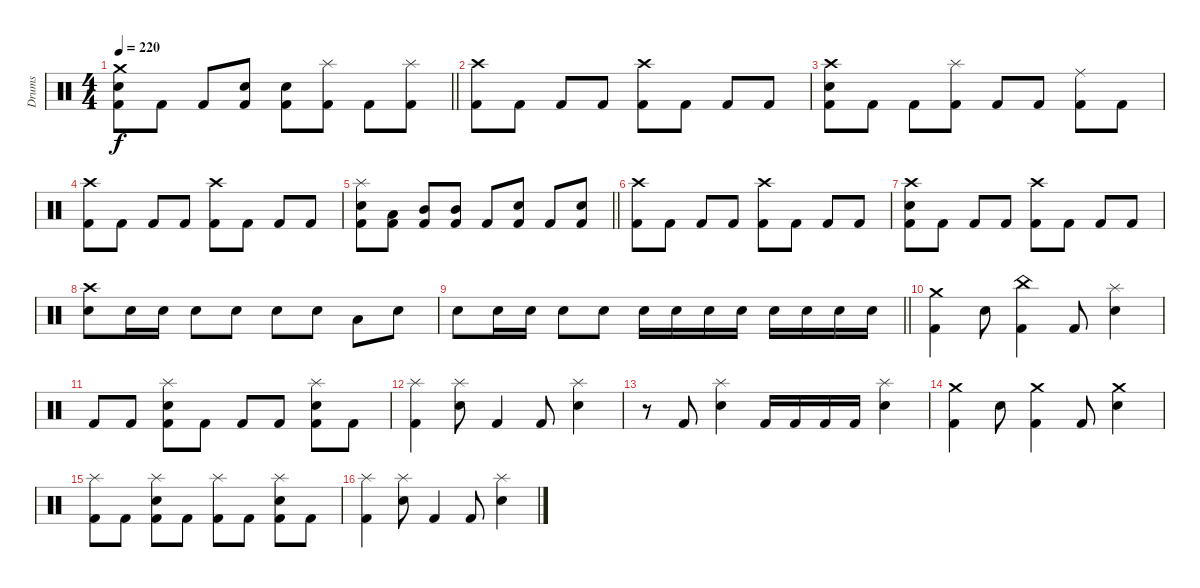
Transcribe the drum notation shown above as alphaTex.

\track ("Drums" "Drums") {instrument percussion}
\staff {score}
\articulation defaults
\ts (4 4)
\tempo 220
\clef neutral
\barLineRight lightlight
\ks c
("Crash medium (hit)" "Electric Snare (hit)" "Kick (hit) 2").8{dy f} "Kick (hit) 2".8 "Kick (hit) 2".8 ("Electric Snare (hit)" "Kick (hit) 2").8 ("Electric Snare (hit)" "Kick (hit) 2").8 ("Splash (hit)" "Kick (hit) 2").8 "Kick (hit) 2".8 ("Splash (hit)" "Kick (hit) 2").8 |
("Crash high (hit)" "Kick (hit) 2").8 "Kick (hit) 2".8 "Kick (hit) 2".8 "Kick (hit) 2".8 ("Crash high (hit)" "Kick (hit) 2").8 "Kick (hit) 2".8 "Kick (hit) 2".8 "Kick (hit) 2".8 |
("Crash high (hit)" "Electric Snare (hit)" "Kick (hit) 2").8 "Kick (hit) 2".8 "Kick (hit) 2".8 ("Splash (hit)" "Kick (hit) 2").8 "Kick (hit) 2".8 "Kick (hit) 2".8 ("Ride (middle)" "Kick (hit) 2").8 "Kick (hit) 2".8 |
("Crash high (hit)" "Kick (hit) 2").8 "Kick (hit) 2".8 "Kick (hit) 2".8 "Kick (hit) 2".8 ("Crash high (hit)" "Kick (hit) 2").8 "Kick (hit) 2".8 "Kick (hit) 2".8 "Kick (hit) 2".8 |
\barLineRight lightlight
("Splash (hit)" "Electric Snare (hit)" "Kick (hit) 2").8 ("Low Tom (hit)" "Kick (hit) 2").8 ("Mid Tom (hit)" "Kick (hit) 2").8 ("Mid Tom (hit)" "Kick (hit) 2").8 "Kick (hit) 2".8 ("Electric Snare (hit)" "Kick (hit) 2").8 "Kick (hit) 2".8 ("Electric Snare (hit)" "Kick (hit) 2").8 |
("Crash high (hit)" "Kick (hit) 2").8 "Kick (hit) 2".8 "Kick (hit) 2".8 "Kick (hit) 2".8 ("Crash high (hit)" "Kick (hit) 2").8 "Kick (hit) 2".8 "Kick (hit) 2".8 "Kick (hit) 2".8 |
("Crash high (hit)" "Electric Snare (hit)" "Kick (hit) 2").8 "Kick (hit) 2".8 "Kick (hit) 2".8 "Kick (hit) 2".8 ("Crash high (hit)" "Kick (hit) 2").8 "Kick (hit) 2".8 "Kick (hit) 2".8 "Kick (hit) 2".8 |
("Crash high (hit)" "Electric Snare (hit)").8 "Electric Snare (hit)".16 "Electric Snare (hit)".16 "Electric Snare (hit)".8 "Electric Snare (hit)".8 "Electric Snare (hit)".8 "Electric Snare (hit)".8 "Low Tom (hit)".8 "Electric Snare (hit)".8 |
\barLineRight lightlight "Electric Snare (hit)".8 "Electric Snare (hit)".16 "Electric Snare (hit)".16 "Electric Snare (hit)".8 "Electric Snare (hit)".8 "Electric Snare (hit)".16 "Electric Snare (hit)".16 "Electric Snare (hit)".16 "Electric Snare (hit)".16 "Electric Snare (hit)".16 "Electric Snare (hit)".16 "Electric Snare (hit)".16 "Electric Snare (hit)".16
|
\section ("" "")
("Crash medium (hit)" "Kick (hit) 2").4 "Electric Snare (hit)".8 ("China (hit)" "Kick (hit) 2").4 "Kick (hit) 2".8 ("Splash (hit)" "Electric Snare (hit)").4 |
"Kick (hit) 2".8 "Kick (hit) 2".8 ("Splash (hit)" "Electric Snare (hit)" "Kick (hit) 2").8 "Kick (hit) 2".8 "Kick (hit) 2".8 "Kick (hit) 2".8 ("Splash (hit)" "Electric Snare (hit)" "Kick (hit) 2").8 "Kick (hit) 2".8 |
("Splash (hit)" "Kick (hit) 2").4 ("Splash (hit)" "Electric Snare (hit)").8 "Kick (hit) 2".4 "Kick (hit) 2".8 ("Splash (hit)" "Electric Snare (hit)").4 |
r.8 "Kick (hit) 2".8 ("Splash (hit)" "Electric Snare (hit)").4 "Kick (hit) 2".16 "Kick (hit) 2".16 "Kick (hit) 2".16 "Kick (hit) 2".16 ("Splash (hit)" "Electric Snare (hit)").4 |
("Crash medium (hit)" "Kick (hit) 2").4 "Electric Snare (hit)".8 ("Crash medium (hit)" "Kick (hit) 2").4 "Kick (hit) 2".8 ("Crash medium (hit)" "Electric Snare (hit)").4 |
("Splash (hit)" "Kick (hit) 2").8 "Kick (hit) 2".8 ("Splash (hit)" "Electric Snare (hit)" "Kick (hit) 2").8 "Kick (hit) 2".8 ("Splash (hit)" "Kick (hit) 2").8 "Kick (hit) 2".8 ("Splash (hit)" "Electric Snare (hit)" "Kick (hit) 2").8 "Kick (hit) 2".8 |
("Splash (hit)" "Kick (hit) 2").4 ("Splash (hit)" "Electric Snare (hit)").8 "Kick (hit) 2".4 "Kick (hit) 2".8 ("Splash (hit)" "Electric Snare (hit)").4
